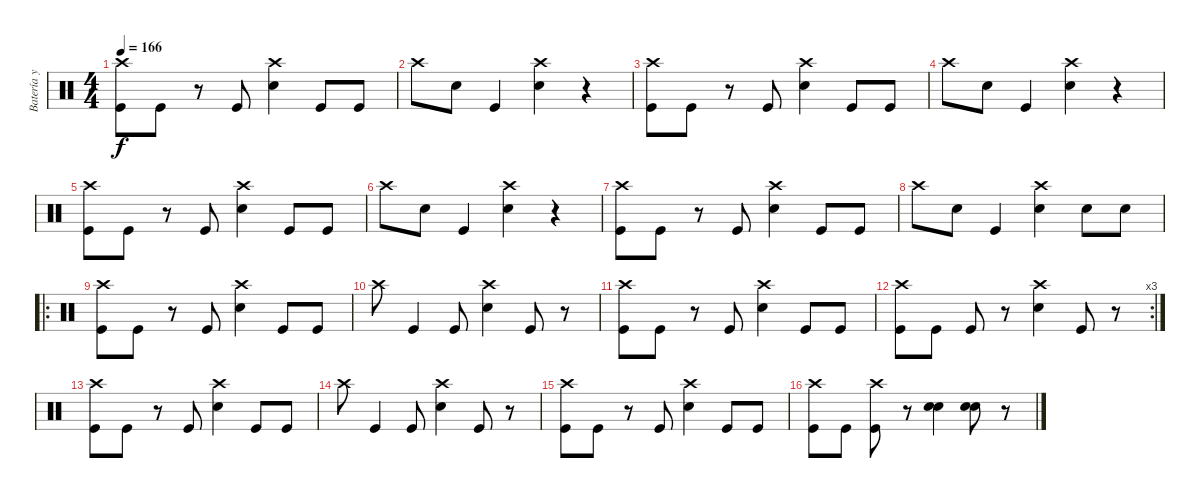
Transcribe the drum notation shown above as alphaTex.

\track ("Batería y letras" "Batería y ") {instrument percussion}
\staff {score}
\articulation defaults
\ts (4 4)
\tempo 166
\clef neutral
\ks c
("Kick (hit)" "Crash high (hit)").8{dy f} "Kick (hit)".8 r.8 "Kick (hit)".8 ("Electric Snare (hit)" "Crash high (hit)").4 "Kick (hit)".8 "Kick (hit)".8 |
"Crash high (hit)".8 "Electric Snare (hit)".8 "Kick (hit)".4 ("Electric Snare (hit)" "Crash high (hit)").4 r.4 |
("Kick (hit)" "Crash high (hit)").8 "Kick (hit)".8 r.8 "Kick (hit)".8 ("Electric Snare (hit)" "Crash high (hit)").4 "Kick (hit)".8 "Kick (hit)".8 |
"Crash high (hit)".8 "Electric Snare (hit)".8 "Kick (hit)".4 ("Electric Snare (hit)" "Crash high (hit)").4 r.4 |
("Kick (hit)" "Crash high (hit)").8 "Kick (hit)".8 r.8 "Kick (hit)".8 ("Electric Snare (hit)" "Crash high (hit)").4 "Kick (hit)".8 "Kick (hit)".8 |
"Crash high (hit)".8 "Electric Snare (hit)".8 "Kick (hit)".4 ("Electric Snare (hit)" "Crash high (hit)").4 r.4 |
("Kick (hit)" "Crash high (hit)").8 "Kick (hit)".8 r.8 "Kick (hit)".8 ("Electric Snare (hit)" "Crash high (hit)").4 "Kick (hit)".8 "Kick (hit)".8 |
"Crash high (hit)".8 "Electric Snare (hit)".8 "Kick (hit)".4 ("Electric Snare (hit)" "Crash high (hit)").4 "Electric Snare (hit)".8 "Electric Snare (hit)".8 |
\ro
("Kick (hit)" "Crash high (hit)").8 "Kick (hit)".8 r.8 "Kick (hit)".8 ("Electric Snare (hit)" "Crash high (hit)").4 "Kick (hit)".8 "Kick (hit)".8 |
"Crash high (hit)".8 "Kick (hit)".4 "Kick (hit)".8 ("Electric Snare (hit)" "Crash high (hit)").4 "Kick (hit)".8 r.8 |
("Kick (hit)" "Crash high (hit)").8 "Kick (hit)".8 r.8 "Kick (hit)".8 ("Electric Snare (hit)" "Crash high (hit)").4 "Kick (hit)".8 "Kick (hit)".8 |
\rc 3
("Kick (hit)" "Crash high (hit)").8 "Kick (hit)".8 "Kick (hit)".8 r.8 ("Electric Snare (hit)" "Crash high (hit)").4 "Kick (hit)".8 r.8 |
("Kick (hit)" "Crash high (hit)").8 "Kick (hit)".8 r.8 "Kick (hit)".8 ("Electric Snare (hit)" "Crash high (hit)").4 "Kick (hit)".8 "Kick (hit)".8 |
"Crash high (hit)".8 "Kick (hit)".4 "Kick (hit)".8 ("Electric Snare (hit)" "Crash high (hit)").4 "Kick (hit)".8 r.8 |
("Kick (hit)" "Crash high (hit)").8 "Kick (hit)".8 r.8 "Kick (hit)".8 ("Electric Snare (hit)" "Crash high (hit)").4 "Kick (hit)".8 "Kick (hit)".8 |
("Kick (hit)" "Crash high (hit)").8 "Kick (hit)".8 ("Kick (hit)" "Crash high (hit)").8 r.8 ("Electric Snare (hit)" "Electric Snare (hit)").4 ("Electric Snare (hit)" "Electric Snare (hit)").8 r.8
